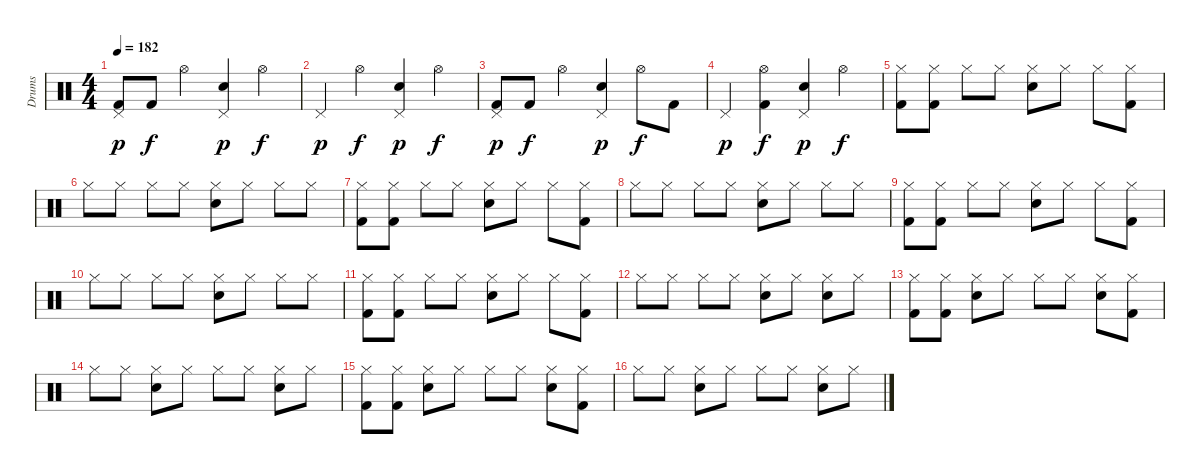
\track ("Drums" "Drums") {instrument percussion}
\staff {score}
\articulation defaults
\ts (4 4)
\tempo 182
\clef neutral
\ks c
("Pedal Hi-Hat (hit)" "Kick (hit) 2").8{dy p} "Kick (hit) 2".8{dy f} "Hi-Hat (open)".4 ("Pedal Hi-Hat (hit)" "Snare (hit) 2").4{dy p} "Hi-Hat (open)".4{dy f} |
"Pedal Hi-Hat (hit)".4{dy p} "Hi-Hat (open)".4{dy f} ("Pedal Hi-Hat (hit)" "Snare (hit) 2").4{dy p} "Hi-Hat (open)".4{dy f} |
("Pedal Hi-Hat (hit)" "Kick (hit) 2").8{dy p} "Kick (hit) 2".8{dy f} "Hi-Hat (open)".4 ("Pedal Hi-Hat (hit)" "Snare (hit) 2").4{dy p} "Hi-Hat (open)".8{dy f} "Kick (hit) 2".8 |
"Pedal Hi-Hat (hit)".4{dy p} ("Hi-Hat (open)" "Kick (hit) 2").4{dy f} ("Pedal Hi-Hat (hit)" "Snare (hit) 2").4{dy p} "Hi-Hat (open)".4{dy f} |
("Hi-Hat (closed)" "Kick (hit) 2").8 ("Hi-Hat (closed)" "Kick (hit) 2").8 "Hi-Hat (closed)".8 "Hi-Hat (closed)".8 ("Hi-Hat (closed)" "Snare (hit) 2").8 "Hi-Hat (closed)".8 "Hi-Hat (closed)".8 ("Hi-Hat (closed)" "Kick (hit) 2").8 |
"Hi-Hat (closed)".8 "Hi-Hat (closed)".8 "Hi-Hat (closed)".8 "Hi-Hat (closed)".8 ("Hi-Hat (closed)" "Snare (hit) 2").8 "Hi-Hat (closed)".8 "Hi-Hat (closed)".8 "Hi-Hat (closed)".8 |
("Hi-Hat (closed)" "Kick (hit) 2").8 ("Hi-Hat (closed)" "Kick (hit) 2").8 "Hi-Hat (closed)".8 "Hi-Hat (closed)".8 ("Hi-Hat (closed)" "Snare (hit) 2").8 "Hi-Hat (closed)".8 "Hi-Hat (closed)".8 ("Hi-Hat (closed)" "Kick (hit) 2").8 |
"Hi-Hat (closed)".8 "Hi-Hat (closed)".8 "Hi-Hat (closed)".8 "Hi-Hat (closed)".8 ("Hi-Hat (closed)" "Snare (hit) 2").8 "Hi-Hat (closed)".8 "Hi-Hat (closed)".8 "Hi-Hat (closed)".8 |
("Hi-Hat (closed)" "Kick (hit) 2").8 ("Hi-Hat (closed)" "Kick (hit) 2").8 "Hi-Hat (closed)".8 "Hi-Hat (closed)".8 ("Hi-Hat (closed)" "Snare (hit) 2").8 "Hi-Hat (closed)".8 "Hi-Hat (closed)".8 ("Hi-Hat (closed)" "Kick (hit) 2").8 |
"Hi-Hat (closed)".8 "Hi-Hat (closed)".8 "Hi-Hat (closed)".8 "Hi-Hat (closed)".8 ("Hi-Hat (closed)" "Snare (hit) 2").8 "Hi-Hat (closed)".8 "Hi-Hat (closed)".8 "Hi-Hat (closed)".8 |
("Hi-Hat (closed)" "Kick (hit) 2").8 ("Hi-Hat (closed)" "Kick (hit) 2").8 "Hi-Hat (closed)".8 "Hi-Hat (closed)".8 ("Hi-Hat (closed)" "Snare (hit) 2").8 "Hi-Hat (closed)".8 "Hi-Hat (closed)".8 ("Hi-Hat (closed)" "Kick (hit) 2").8 |
"Hi-Hat (closed)".8 "Hi-Hat (closed)".8 "Hi-Hat (closed)".8 "Hi-Hat (closed)".8 ("Hi-Hat (closed)" "Snare (hit) 2").8 "Hi-Hat (closed)".8 ("Hi-Hat (closed)" "Snare (hit) 2").8 "Hi-Hat (closed)".8 |
("Hi-Hat (closed)" "Kick (hit) 2").8 ("Hi-Hat (closed)" "Kick (hit) 2").8 ("Hi-Hat (closed)" "Snare (hit) 2").8 "Hi-Hat (closed)".8 "Hi-Hat (closed)".8 "Hi-Hat (closed)".8 ("Hi-Hat (closed)" "Snare (hit) 2").8 ("Hi-Hat (closed)" "Kick (hit) 2").8 |
"Hi-Hat (closed)".8 "Hi-Hat (closed)".8 ("Hi-Hat (closed)" "Snare (hit) 2").8 "Hi-Hat (closed)".8 "Hi-Hat (closed)".8 "Hi-Hat (closed)".8 ("Hi-Hat (closed)" "Snare (hit) 2").8 "Hi-Hat (closed)".8 |
("Hi-Hat (closed)" "Kick (hit) 2").8 ("Hi-Hat (closed)" "Kick (hit) 2").8 ("Hi-Hat (closed)" "Snare (hit) 2").8 "Hi-Hat (closed)".8 "Hi-Hat (closed)".8 "Hi-Hat (closed)".8 ("Hi-Hat (closed)" "Snare (hit) 2").8 ("Hi-Hat (closed)" "Kick (hit) 2").8 |
"Hi-Hat (closed)".8 "Hi-Hat (closed)".8 ("Hi-Hat (closed)" "Snare (hit) 2").8 "Hi-Hat (closed)".8 "Hi-Hat (closed)".8 "Hi-Hat (closed)".8 ("Hi-Hat (closed)" "Snare (hit) 2").8 "Hi-Hat (closed)".8
